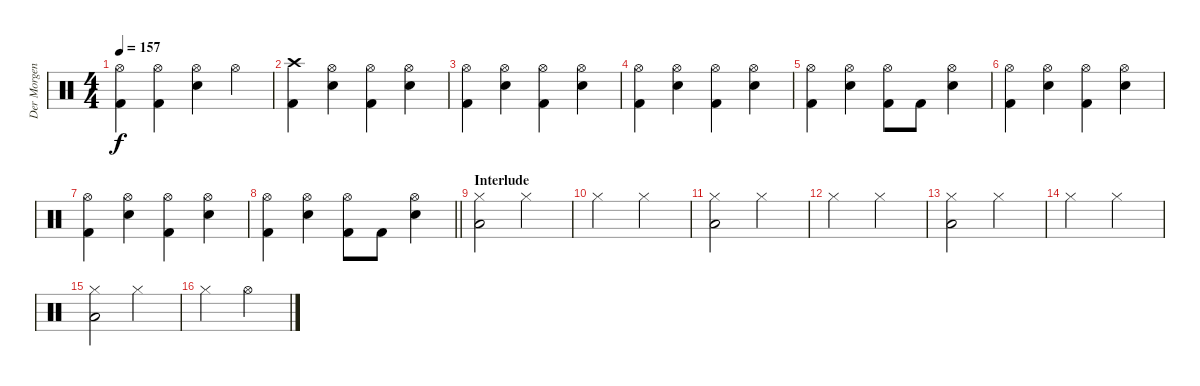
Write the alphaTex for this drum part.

\track ("Der Morgenstern" "Der Morgen") {instrument percussion}
\staff {score}
\articulation defaults
\ts (4 4)
\tempo 157
\clef neutral
\ks c
("Hi-Hat (open)" "Kick (hit) 2").4{dy f} ("Hi-Hat (open)" "Kick (hit) 2").4 ("Hi-Hat (open)" "Electric Snare (hit)").4 "Hi-Hat (open)".4 |
("Crash high (hit)" "Kick (hit) 2").4 ("Hi-Hat (open)" "Electric Snare (hit)").4 ("Hi-Hat (open)" "Kick (hit) 2").4 ("Hi-Hat (open)" "Electric Snare (hit)").4 |
("Hi-Hat (open)" "Kick (hit) 2").4 ("Hi-Hat (open)" "Electric Snare (hit)").4 ("Hi-Hat (open)" "Kick (hit) 2").4 ("Hi-Hat (open)" "Electric Snare (hit)").4 |
("Hi-Hat (open)" "Kick (hit) 2").4 ("Hi-Hat (open)" "Electric Snare (hit)").4 ("Hi-Hat (open)" "Kick (hit) 2").4 ("Hi-Hat (open)" "Electric Snare (hit)").4 |
("Hi-Hat (open)" "Kick (hit) 2").4 ("Hi-Hat (open)" "Electric Snare (hit)").4 ("Hi-Hat (open)" "Kick (hit) 2").8 "Kick (hit) 2".8 ("Hi-Hat (open)" "Electric Snare (hit)").4 |
("Hi-Hat (open)" "Kick (hit) 2").4 ("Hi-Hat (open)" "Electric Snare (hit)").4 ("Hi-Hat (open)" "Kick (hit) 2").4 ("Hi-Hat (open)" "Electric Snare (hit)").4 |
("Hi-Hat (open)" "Kick (hit) 2").4 ("Hi-Hat (open)" "Electric Snare (hit)").4 ("Hi-Hat (open)" "Kick (hit) 2").4 ("Hi-Hat (open)" "Electric Snare (hit)").4 |
\barLineRight lightlight
("Hi-Hat (open)" "Kick (hit) 2").4 ("Hi-Hat (open)" "Electric Snare (hit)").4 ("Hi-Hat (open)" "Kick (hit) 2").8 "Kick (hit) 2".8 ("Hi-Hat (open)" "Electric Snare (hit)").4 |
\section ("" "Interlude")
("Hi-Hat (closed)" "Low Floor Tom (hit)").2 "Hi-Hat (closed)".2 |
"Hi-Hat (closed)".2 "Hi-Hat (closed)".2 |
("Hi-Hat (closed)" "Low Floor Tom (hit)").2 "Hi-Hat (closed)".2 |
"Hi-Hat (closed)".2 "Hi-Hat (closed)".2 |
("Hi-Hat (closed)" "Low Floor Tom (hit)").2 "Hi-Hat (closed)".2 |
"Hi-Hat (closed)".2 "Hi-Hat (closed)".2 |
("Hi-Hat (closed)" "Low Floor Tom (hit)").2 "Hi-Hat (closed)".2 |
"Hi-Hat (closed)".2 "Hi-Hat (open)".2
